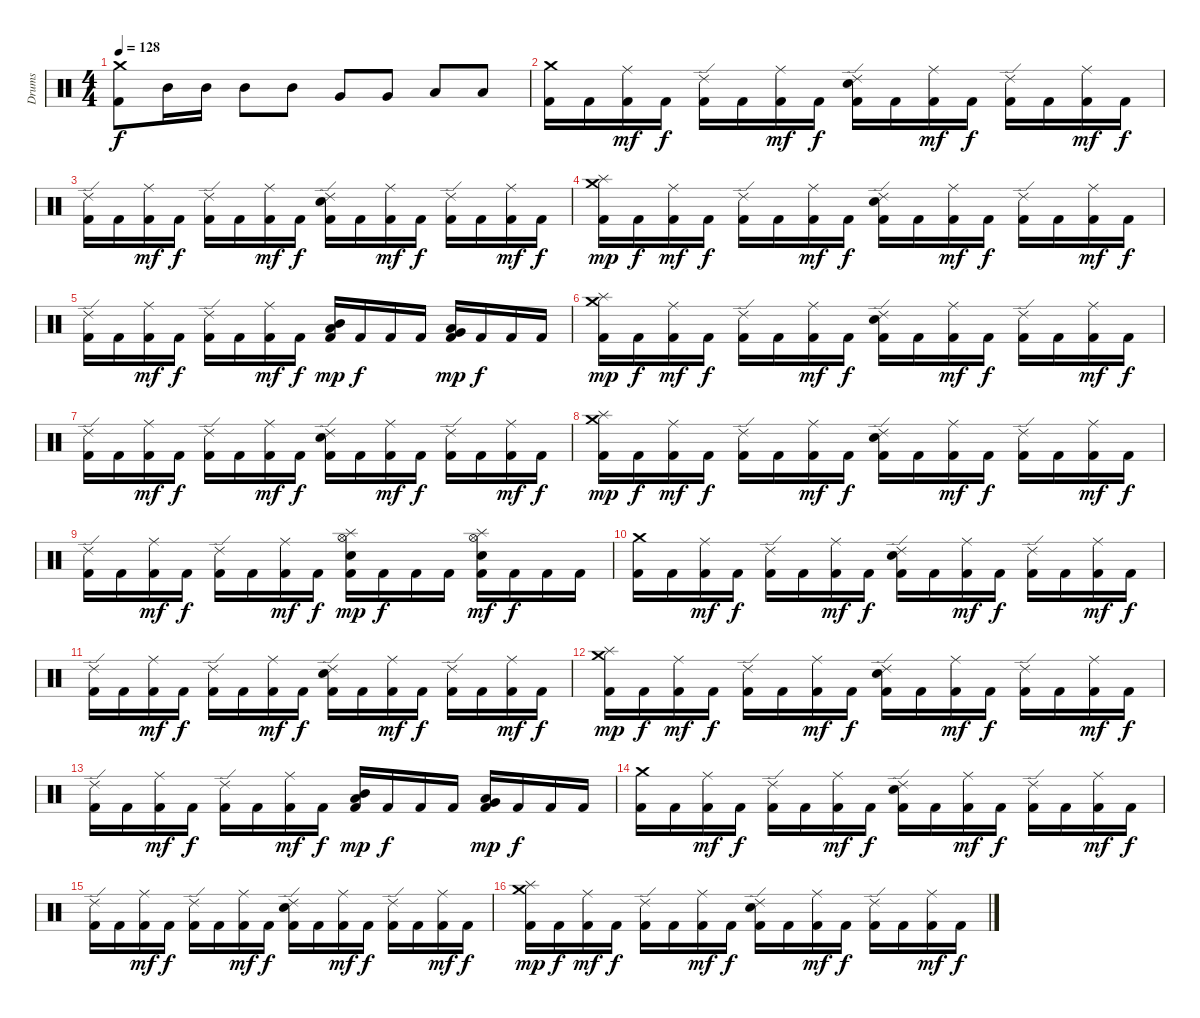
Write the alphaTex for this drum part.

\track ("Drums" "Drums") {instrument percussion}
\staff {score}
\articulation defaults
\ts (4 4)
\tempo 128
\clef neutral
\ks c
("Crash medium (hit)" "Kick (hit) 2").8{dy f} "Mid Tom (hit)".16 "Mid Tom (hit)".16 "Mid Tom (hit)".8 "Mid Tom (hit)".8 "Very Low Tom (hit)".8 "Very Low Tom (hit)".8 "Low Floor Tom (hit)".8 "Low Floor Tom (hit)".8 |
("Crash medium (hit)" "Kick (hit) 2").16 "Kick (hit) 2".16 ("Ride (middle)" "Kick (hit) 2").16{dy mf} "Kick (hit) 2".16{dy f} ("Ride (edge) 2" "Kick (hit) 2").16 "Kick (hit) 2".16 ("Ride (middle)" "Kick (hit) 2").16{dy mf} "Kick (hit) 2".16{dy f} ("Ride (edge) 2" "Electric Snare (hit)" "Kick (hit) 2").16 "Kick (hit) 2".16 ("Ride (middle)" "Kick (hit) 2").16{dy mf} "Kick (hit) 2".16{dy f} ("Ride (edge) 2" "Kick (hit) 2").16 "Kick (hit) 2".16 ("Ride (middle)" "Kick (hit) 2").16{dy mf} "Kick (hit) 2".16{dy f} |
("Ride (edge) 2" "Kick (hit) 2").16 "Kick (hit) 2".16 ("Ride (middle)" "Kick (hit) 2").16{dy mf} "Kick (hit) 2".16{dy f} ("Ride (edge) 2" "Kick (hit) 2").16 "Kick (hit) 2".16 ("Ride (middle)" "Kick (hit) 2").16{dy mf} "Kick (hit) 2".16{dy f} ("Ride (edge) 2" "Electric Snare (hit)" "Kick (hit) 2").16 "Kick (hit) 2".16 ("Ride (middle)" "Kick (hit) 2").16{dy mf} "Kick (hit) 2".16{dy f} ("Ride (edge) 2" "Kick (hit) 2").16 "Kick (hit) 2".16 ("Ride (middle)" "Kick (hit) 2").16{dy mf} "Kick (hit) 2".16{dy f} |
("Crash medium (hit)" "Splash (hit)" "Kick (hit) 2").16{dy mp} "Kick (hit) 2".16{dy f} ("Ride (middle)" "Kick (hit) 2").16{dy mf} "Kick (hit) 2".16{dy f} ("Ride (edge) 2" "Kick (hit) 2").16 "Kick (hit) 2".16 ("Ride (middle)" "Kick (hit) 2").16{dy mf} "Kick (hit) 2".16{dy f} ("Ride (edge) 2" "Electric Snare (hit)" "Kick (hit) 2").16 "Kick (hit) 2".16 ("Ride (middle)" "Kick (hit) 2").16{dy mf} "Kick (hit) 2".16{dy f} ("Ride (edge) 2" "Kick (hit) 2").16 "Kick (hit) 2".16 ("Ride (middle)" "Kick (hit) 2").16{dy mf} "Kick (hit) 2".16{dy f} |
("Ride (edge) 2" "Kick (hit) 2").16 "Kick (hit) 2".16 ("Ride (middle)" "Kick (hit) 2").16{dy mf} "Kick (hit) 2".16{dy f} ("Ride (edge) 2" "Kick (hit) 2").16 "Kick (hit) 2".16 ("Ride (middle)" "Kick (hit) 2").16{dy mf} "Kick (hit) 2".16{dy f} ("Mid Tom (hit)" "Low Tom (hit)" "Kick (hit) 2").16{dy mp} "Kick (hit) 2".16{dy f} "Kick (hit) 2".16 "Kick (hit) 2".16 ("Low Tom (hit)" "Very Low Tom (hit)" "Kick (hit) 2").16{dy mp} "Kick (hit) 2".16{dy f} "Kick (hit) 2".16 "Kick (hit) 2".16 |
("Crash medium (hit)" "Splash (hit)" "Kick (hit) 2").16{dy mp} "Kick (hit) 2".16{dy f} ("Ride (middle)" "Kick (hit) 2").16{dy mf} "Kick (hit) 2".16{dy f} ("Ride (edge) 2" "Kick (hit) 2").16 "Kick (hit) 2".16 ("Ride (middle)" "Kick (hit) 2").16{dy mf} "Kick (hit) 2".16{dy f} ("Ride (edge) 2" "Electric Snare (hit)" "Kick (hit) 2").16 "Kick (hit) 2".16 ("Ride (middle)" "Kick (hit) 2").16{dy mf} "Kick (hit) 2".16{dy f} ("Ride (edge) 2" "Kick (hit) 2").16 "Kick (hit) 2".16 ("Ride (middle)" "Kick (hit) 2").16{dy mf} "Kick (hit) 2".16{dy f} |
("Ride (edge) 2" "Kick (hit) 2").16 "Kick (hit) 2".16 ("Ride (middle)" "Kick (hit) 2").16{dy mf} "Kick (hit) 2".16{dy f} ("Ride (edge) 2" "Kick (hit) 2").16 "Kick (hit) 2".16 ("Ride (middle)" "Kick (hit) 2").16{dy mf} "Kick (hit) 2".16{dy f} ("Ride (edge) 2" "Electric Snare (hit)" "Kick (hit) 2").16 "Kick (hit) 2".16 ("Ride (middle)" "Kick (hit) 2").16{dy mf} "Kick (hit) 2".16{dy f} ("Ride (edge) 2" "Kick (hit) 2").16 "Kick (hit) 2".16 ("Ride (middle)" "Kick (hit) 2").16{dy mf} "Kick (hit) 2".16{dy f} |
("Splash (hit)" "Crash medium (hit)" "Kick (hit) 2").16{dy mp} "Kick (hit) 2".16{dy f} ("Ride (middle)" "Kick (hit) 2").16{dy mf} "Kick (hit) 2".16{dy f} ("Ride (edge) 2" "Kick (hit) 2").16 "Kick (hit) 2".16 ("Ride (middle)" "Kick (hit) 2").16{dy mf} "Kick (hit) 2".16{dy f} ("Ride (edge) 2" "Electric Snare (hit)" "Kick (hit) 2").16 "Kick (hit) 2".16 ("Ride (middle)" "Kick (hit) 2").16{dy mf} "Kick (hit) 2".16{dy f} ("Ride (edge) 2" "Kick (hit) 2").16 "Kick (hit) 2".16 ("Ride (middle)" "Kick (hit) 2").16{dy mf} "Kick (hit) 2".16{dy f} |
("Ride (edge) 2" "Kick (hit) 2").16 "Kick (hit) 2".16 ("Ride (middle)" "Kick (hit) 2").16{dy mf} "Kick (hit) 2".16{dy f} ("Ride (edge) 2" "Kick (hit) 2").16 "Kick (hit) 2".16 ("Ride (middle)" "Kick (hit) 2").16{dy mf} "Kick (hit) 2".16{dy f} ("Hi-Hat (open)" "Splash (hit)" "Electric Snare (hit)" "Kick (hit) 2").16{dy mp} "Kick (hit) 2".16{dy f} "Kick (hit) 2".16 "Kick (hit) 2".16 ("Hi-Hat (open)" "Splash (hit)" "Electric Snare (hit)" "Kick (hit) 2").16{dy mf} "Kick (hit) 2".16{dy f} "Kick (hit) 2".16 "Kick (hit) 2".16 |
("Crash medium (hit)" "Kick (hit) 2").16 "Kick (hit) 2".16 ("Ride (middle)" "Kick (hit) 2").16{dy mf} "Kick (hit) 2".16{dy f} ("Ride (edge) 2" "Kick (hit) 2").16 "Kick (hit) 2".16 ("Ride (middle)" "Kick (hit) 2").16{dy mf} "Kick (hit) 2".16{dy f} ("Ride (edge) 2" "Electric Snare (hit)" "Kick (hit) 2").16 "Kick (hit) 2".16 ("Ride (middle)" "Kick (hit) 2").16{dy mf} "Kick (hit) 2".16{dy f} ("Ride (edge) 2" "Kick (hit) 2").16 "Kick (hit) 2".16 ("Ride (middle)" "Kick (hit) 2").16{dy mf} "Kick (hit) 2".16{dy f} |
("Ride (edge) 2" "Kick (hit) 2").16 "Kick (hit) 2".16 ("Ride (middle)" "Kick (hit) 2").16{dy mf} "Kick (hit) 2".16{dy f} ("Ride (edge) 2" "Kick (hit) 2").16 "Kick (hit) 2".16 ("Ride (middle)" "Kick (hit) 2").16{dy mf} "Kick (hit) 2".16{dy f} ("Ride (edge) 2" "Electric Snare (hit)" "Kick (hit) 2").16 "Kick (hit) 2".16 ("Ride (middle)" "Kick (hit) 2").16{dy mf} "Kick (hit) 2".16{dy f} ("Ride (edge) 2" "Kick (hit) 2").16 "Kick (hit) 2".16 ("Ride (middle)" "Kick (hit) 2").16{dy mf} "Kick (hit) 2".16{dy f} |
("Crash medium (hit)" "Splash (hit)" "Kick (hit) 2").16{dy mp} "Kick (hit) 2".16{dy f} ("Ride (middle)" "Kick (hit) 2").16{dy mf} "Kick (hit) 2".16{dy f} ("Ride (edge) 2" "Kick (hit) 2").16 "Kick (hit) 2".16 ("Ride (middle)" "Kick (hit) 2").16{dy mf} "Kick (hit) 2".16{dy f} ("Ride (edge) 2" "Electric Snare (hit)" "Kick (hit) 2").16 "Kick (hit) 2".16 ("Ride (middle)" "Kick (hit) 2").16{dy mf} "Kick (hit) 2".16{dy f} ("Ride (edge) 2" "Kick (hit) 2").16 "Kick (hit) 2".16 ("Ride (middle)" "Kick (hit) 2").16{dy mf} "Kick (hit) 2".16{dy f} |
("Ride (edge) 2" "Kick (hit) 2").16 "Kick (hit) 2".16 ("Ride (middle)" "Kick (hit) 2").16{dy mf} "Kick (hit) 2".16{dy f} ("Ride (edge) 2" "Kick (hit) 2").16 "Kick (hit) 2".16 ("Ride (middle)" "Kick (hit) 2").16{dy mf} "Kick (hit) 2".16{dy f} ("Mid Tom (hit)" "Low Tom (hit)" "Kick (hit) 2").16{dy mp} "Kick (hit) 2".16{dy f} "Kick (hit) 2".16 "Kick (hit) 2".16 ("Low Tom (hit)" "Very Low Tom (hit)" "Kick (hit) 2").16{dy mp} "Kick (hit) 2".16{dy f} "Kick (hit) 2".16 "Kick (hit) 2".16 |
("Crash medium (hit)" "Kick (hit) 2").16 "Kick (hit) 2".16 ("Ride (middle)" "Kick (hit) 2").16{dy mf} "Kick (hit) 2".16{dy f} ("Ride (edge) 2" "Kick (hit) 2").16 "Kick (hit) 2".16 ("Ride (middle)" "Kick (hit) 2").16{dy mf} "Kick (hit) 2".16{dy f} ("Ride (edge) 2" "Electric Snare (hit)" "Kick (hit) 2").16 "Kick (hit) 2".16 ("Ride (middle)" "Kick (hit) 2").16{dy mf} "Kick (hit) 2".16{dy f} ("Ride (edge) 2" "Kick (hit) 2").16 "Kick (hit) 2".16 ("Ride (middle)" "Kick (hit) 2").16{dy mf} "Kick (hit) 2".16{dy f} |
("Ride (edge) 2" "Kick (hit) 2").16 "Kick (hit) 2".16 ("Ride (middle)" "Kick (hit) 2").16{dy mf} "Kick (hit) 2".16{dy f} ("Ride (edge) 2" "Kick (hit) 2").16 "Kick (hit) 2".16 ("Ride (middle)" "Kick (hit) 2").16{dy mf} "Kick (hit) 2".16{dy f} ("Ride (edge) 2" "Electric Snare (hit)" "Kick (hit) 2").16 "Kick (hit) 2".16 ("Ride (middle)" "Kick (hit) 2").16{dy mf} "Kick (hit) 2".16{dy f} ("Ride (edge) 2" "Kick (hit) 2").16 "Kick (hit) 2".16 ("Ride (middle)" "Kick (hit) 2").16{dy mf} "Kick (hit) 2".16{dy f} |
("Crash medium (hit)" "Splash (hit)" "Kick (hit) 2").16{dy mp} "Kick (hit) 2".16{dy f} ("Ride (middle)" "Kick (hit) 2").16{dy mf} "Kick (hit) 2".16{dy f} ("Ride (edge) 2" "Kick (hit) 2").16 "Kick (hit) 2".16 ("Ride (middle)" "Kick (hit) 2").16{dy mf} "Kick (hit) 2".16{dy f} ("Ride (edge) 2" "Electric Snare (hit)" "Kick (hit) 2").16 "Kick (hit) 2".16 ("Ride (middle)" "Kick (hit) 2").16{dy mf} "Kick (hit) 2".16{dy f} ("Ride (edge) 2" "Kick (hit) 2").16 "Kick (hit) 2".16 ("Ride (middle)" "Kick (hit) 2").16{dy mf} "Kick (hit) 2".16{dy f}
